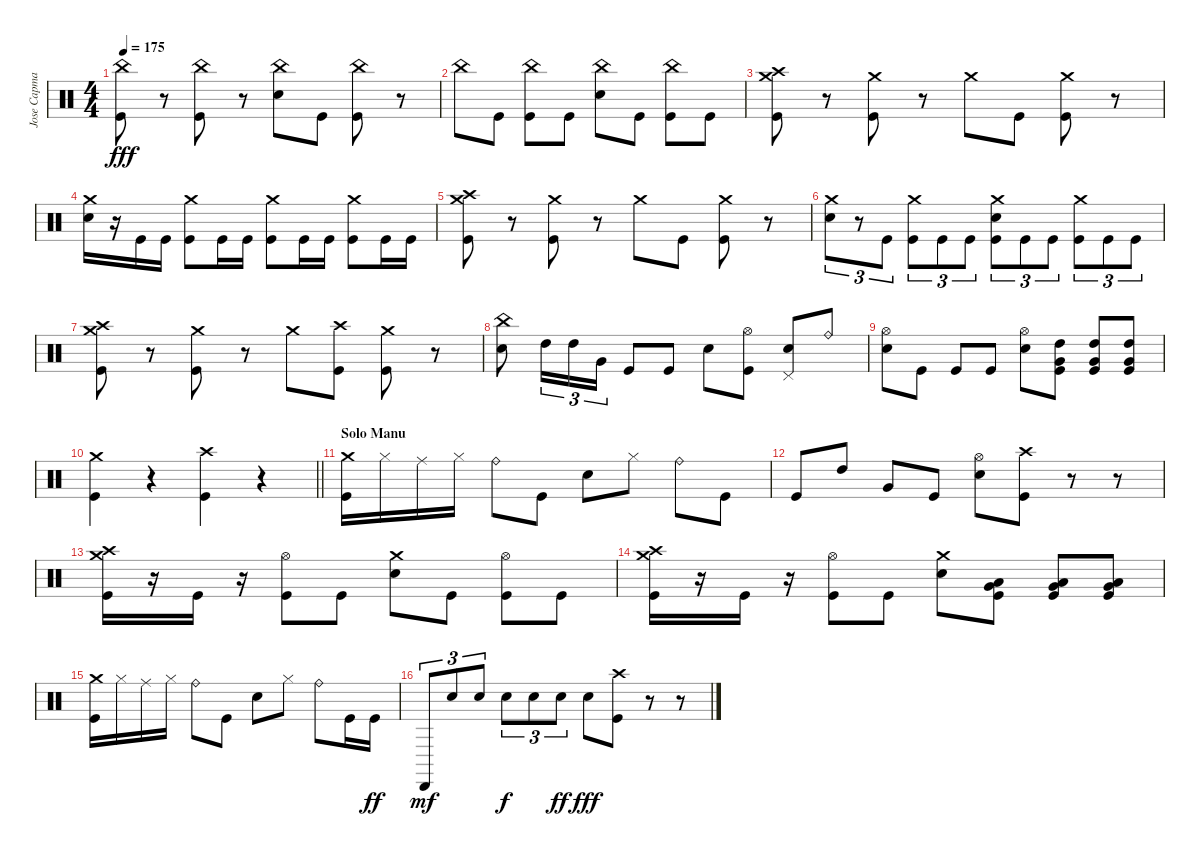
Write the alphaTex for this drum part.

\track ("Jose Capmany" "Jose Capma") {instrument percussion}
\staff {score}
\articulation defaults
\ts (4 4)
\tempo 175
\clef neutral
\ks c
("China (hit)" "Kick (hit)").8{dy fff} r.8 ("China (hit)" "Kick (hit)").8 r.8 ("China (hit)" "Snare (hit) 2").8 "Kick (hit)".8 ("China (hit)" "Kick (hit)").8 r.8 |
"China (hit)".8 "Kick (hit)".8 ("China (hit)" "Kick (hit)").8 "Kick (hit)".8 ("China (hit)" "Snare (hit) 2").8 "Kick (hit)".8 ("China (hit)" "Kick (hit)").8 "Kick (hit)".8 |
("Crash medium (hit)" "Crash high (hit)" "Kick (hit)").8 r.8 ("Crash medium (hit)" "Kick (hit)").8 r.8 "Crash medium (hit)".8 "Kick (hit)".8 ("Crash medium (hit)" "Kick (hit)").8 r.8 |
("Crash medium (hit)" "Snare (hit) 2").16 r.16 "Kick (hit)".16 "Kick (hit)".16 ("Crash medium (hit)" "Kick (hit)").8 "Kick (hit)".16 "Kick (hit)".16 ("Crash medium (hit)" "Kick (hit)").8 "Kick (hit)".16 "Kick (hit)".16 ("Crash medium (hit)" "Kick (hit)").8 "Kick (hit)".16 "Kick (hit)".16 |
("Crash medium (hit)" "Crash high (hit)" "Kick (hit)").8 r.8 ("Crash medium (hit)" "Kick (hit)").8 r.8 "Crash medium (hit)".8 "Kick (hit)".8 ("Crash medium (hit)" "Kick (hit)").8 r.8 |
("Crash medium (hit)" "Snare (hit) 2").8{tu (3 2)} r.8{tu (3 2)} "Kick (hit)".8{tu (3 2)} ("Crash medium (hit)" "Kick (hit)").8{tu (3 2)} "Kick (hit)".8{tu (3 2)} "Kick (hit)".8{tu (3 2)} ("Crash medium (hit)" "Snare (hit) 2" "Kick (hit)").8{tu (3 2)} "Kick (hit)".8{tu (3 2)} "Kick (hit)".8{tu (3 2)} ("Crash medium (hit)" "Kick (hit)").8{tu (3 2)} "Kick (hit)".8{tu (3 2)} "Kick (hit)".8{tu (3 2)} |
("Crash medium (hit)" "Crash high (hit)" "Kick (hit)").8 r.8 ("Crash medium (hit)" "Kick (hit)").8 r.8 "Crash medium (hit)".8 ("Crash high (hit)" "Kick (hit)").8 ("Crash medium (hit)" "Kick (hit)").8 r.8 |
("China (hit)" "Snare (hit) 2").8 "High Tom (hit)".16{tu (3 2)} "High Tom (hit)".16{tu (3 2)} "Very Low Tom (hit)".16{tu (3 2)} "Kick (hit)".8 "Kick (hit)".8 "Snare (hit) 2".8 ("Hi-Hat (open)" "Kick (hit)").8 ("Pedal Hi-Hat (hit)" "Snare (hit) 2").8 "Ride (bell)".8 |
("Hi-Hat (open)" "Snare (hit) 2").8 "Kick (hit)".8 "Kick (hit)".8 "Kick (hit)".8 ("Hi-Hat (open)" "Snare (hit) 2").8 ("High Tom (hit)" "Very Low Tom (hit)" "Kick (hit)").8 ("High Tom (hit)" "Very Low Tom (hit)" "Kick (hit)").8 ("High Tom (hit)" "Very Low Tom (hit)" "Kick (hit)").8 |
\barLineRight lightlight
("Crash medium (hit)" "Kick (hit)").4 r.4 ("Crash high (hit)" "Kick (hit)").4 r.4 |
\section ("" "Solo Manu")
("Crash medium (hit)" "Kick (hit)").16 "Hi-Hat (closed)".16 "Ride (middle)".16 "Hi-Hat (closed)".16 "Ride (bell)".8 "Kick (hit)".8 "Snare (hit) 2".8 "Hi-Hat (closed)".8 "Ride (bell)".8 "Kick (hit)".8 |
"Kick (hit)".8 "High Tom (hit)".8 "Very Low Tom (hit)".8 "Kick (hit)".8 ("Hi-Hat (open)" "Snare (hit) 2").8 ("Crash high (hit)" "Kick (hit)").8 r.8 r.8 |
("Crash high (hit)" "Crash medium (hit)" "Kick (hit)").16 r.16 "Kick (hit)".16 r.16 ("Hi-Hat (open)" "Kick (hit)").8 "Kick (hit)".8 ("Crash medium (hit)" "Snare (hit) 2").8 "Kick (hit)".8 ("Hi-Hat (open)" "Kick (hit)").8 "Kick (hit)".8 |
("Crash high (hit)" "Crash medium (hit)" "Kick (hit)").16 r.16 "Kick (hit)".16 r.16 ("Hi-Hat (open)" "Kick (hit)").8 "Kick (hit)".8 ("Crash medium (hit)" "Snare (hit) 2").8 ("Low Floor Tom (hit)" "Very Low Tom (hit)" "Kick (hit)").8 ("Low Floor Tom (hit)" "Very Low Tom (hit)" "Kick (hit)").8 ("Low Floor Tom (hit)" "Very Low Tom (hit)" "Kick (hit)").8 |
("Crash medium (hit)" "Kick (hit)").16 "Hi-Hat (closed)".16 "Ride (middle)".16 "Hi-Hat (closed)".16 "Ride (bell)".8 "Kick (hit)".8 "Snare (hit) 2".8 "Hi-Hat (closed)".8 "Ride (bell)".8 "Kick (hit)".16 "Kick (hit)".16{dy ff} |
"Cabasa (hit)".8{tu (3 2) dy mf} "Snare (hit) 2".8{tu (3 2)} "Snare (hit) 2".8{tu (3 2)} "Snare (hit) 2".8{tu (3 2) dy f} "Snare (hit) 2".8{tu (3 2)} "Snare (hit) 2".8{tu (3 2) dy ff} "Snare (hit) 2".8{dy fff} ("Crash high (hit)" "Kick (hit)").8 r.8 r.8
